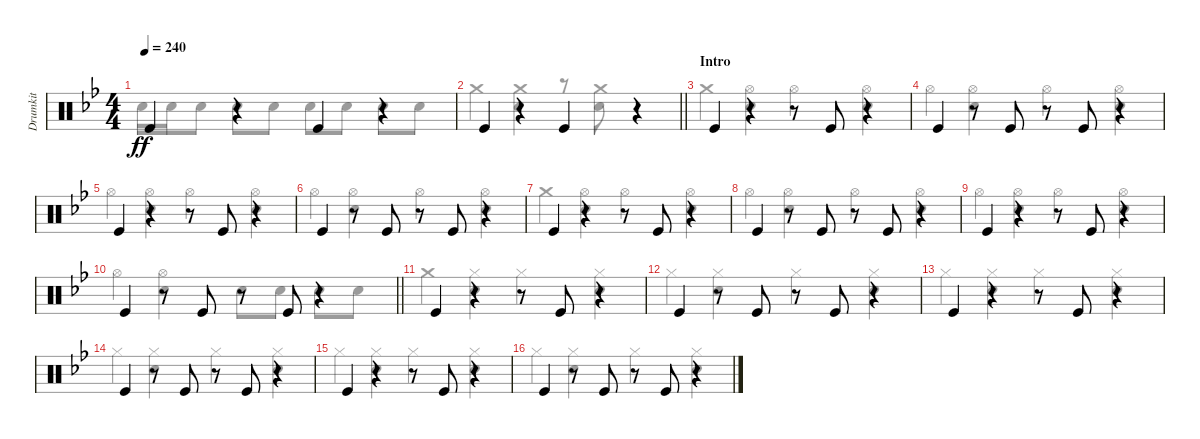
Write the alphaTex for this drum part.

\track ("Drumkit" "Drumkit") {instrument percussion}
\staff {score}
\articulation defaults
\voice
\ts (4 4)
\tempo 240
\clef neutral
\ks bb "Kick (hit)".4{dy ff}
r.4 "Kick (hit)".4 r.4 |
\barLineRight lightlight "Kick (hit)".4
r.4 "Kick (hit)".4 r.4 |
\section ("" "Intro")
"Kick (hit)".4 r.4 r.8 "Kick (hit)".8 r.4 |
"Kick (hit)".4 r.8 "Kick (hit)".8 r.8 "Kick (hit)".8 r.4 |
"Kick (hit)".4 r.4 r.8 "Kick (hit)".8 r.4 |
"Kick (hit)".4 r.8 "Kick (hit)".8 r.8 "Kick (hit)".8 r.4 |
"Kick (hit)".4 r.4 r.8 "Kick (hit)".8 r.4 |
"Kick (hit)".4 r.8 "Kick (hit)".8 r.8 "Kick (hit)".8 r.4 |
"Kick (hit)".4 r.4 r.8 "Kick (hit)".8 r.4 |
\barLineRight lightlight "Kick (hit)".4
r.8 "Kick (hit)".8 r.8 "Kick (hit)".8 r.4 |
\section ("" "")
"Kick (hit)".4 r.4 r.8 "Kick (hit)".8 r.4 |
"Kick (hit)".4 r.8 "Kick (hit)".8 r.8 "Kick (hit)".8 r.4 |
"Kick (hit)".4 r.4 r.8 "Kick (hit)".8 r.4 |
"Kick (hit)".4 r.8 "Kick (hit)".8 r.8 "Kick (hit)".8 r.4 |
"Kick (hit)".4 r.4 r.8 "Kick (hit)".8 r.4 |
"Kick (hit)".4 r.8 "Kick (hit)".8 r.8 "Kick (hit)".8 r.4
\voice
\clef neutral
\ottava regular
\simile none
\ks bb "Snare (hit) 2".16{dy ff} "Snare (hit) 2".16 "Snare (hit) 2".8 "Snare (hit) 2".8 "Snare (hit) 2".8 "Snare (hit) 2".8 "Snare (hit) 2".8 "Snare (hit) 2".8 "Snare (hit) 2".8
|
\barLineRight lightlight "Crash medium (hit)".4
("Snare (hit) 2" "Crash medium (hit)").4 r.8 ("Snare (hit) 2" "Crash medium (hit)").8 r.4 |
"Crash medium (hit)".4 ("Hi-Hat (open)" "Snare (hit) 2").4 "Hi-Hat (open)".4 ("Hi-Hat (open)" "Snare (hit) 2").4 |
"Hi-Hat (open)".4 ("Hi-Hat (open)" "Snare (hit) 2").4 "Hi-Hat (open)".4 ("Hi-Hat (open)" "Snare (hit) 2").4 |
"Hi-Hat (open)".4 ("Hi-Hat (open)" "Snare (hit) 2").4 "Hi-Hat (open)".4 ("Hi-Hat (open)" "Snare (hit) 2").4 |
"Hi-Hat (open)".4 ("Hi-Hat (open)" "Snare (hit) 2").4 "Hi-Hat (open)".4 ("Hi-Hat (open)" "Snare (hit) 2").4 |
"Crash medium (hit)".4 ("Hi-Hat (open)" "Snare (hit) 2").4 "Hi-Hat (open)".4 ("Hi-Hat (open)" "Snare (hit) 2").4 |
"Hi-Hat (open)".4 ("Hi-Hat (open)" "Snare (hit) 2").4 "Hi-Hat (open)".4 ("Hi-Hat (open)" "Snare (hit) 2").4 |
"Hi-Hat (open)".4 ("Hi-Hat (open)" "Snare (hit) 2").4 "Hi-Hat (open)".4 ("Hi-Hat (open)" "Snare (hit) 2").4 |
\barLineRight lightlight "Hi-Hat (open)".4
("Hi-Hat (open)" "Snare (hit) 2").4 "Snare (hit) 2".8 "Snare (hit) 2".8 "Snare (hit) 2".8 "Snare (hit) 2".8 |
"Crash medium (hit)".4 ("Snare (hit) 2" "Hi-Hat (closed)").4 "Hi-Hat (closed)".4 ("Hi-Hat (closed)" "Snare (hit) 2").4 |
"Hi-Hat (closed)".4 ("Hi-Hat (closed)" "Snare (hit) 2").4 "Hi-Hat (closed)".4 ("Hi-Hat (closed)" "Snare (hit) 2").4 |
"Hi-Hat (closed)".4 ("Hi-Hat (closed)" "Snare (hit) 2").4 "Hi-Hat (closed)".4 ("Hi-Hat (closed)" "Snare (hit) 2").4 |
"Hi-Hat (closed)".4 ("Hi-Hat (closed)" "Snare (hit) 2").4 "Hi-Hat (closed)".4 ("Hi-Hat (closed)" "Snare (hit) 2").4 |
"Hi-Hat (closed)".4 ("Hi-Hat (closed)" "Snare (hit) 2").4 "Hi-Hat (closed)".4 ("Hi-Hat (closed)" "Snare (hit) 2").4 |
"Hi-Hat (closed)".4 ("Hi-Hat (closed)" "Snare (hit) 2").4 "Hi-Hat (closed)".4 ("Hi-Hat (closed)" "Snare (hit) 2").4
